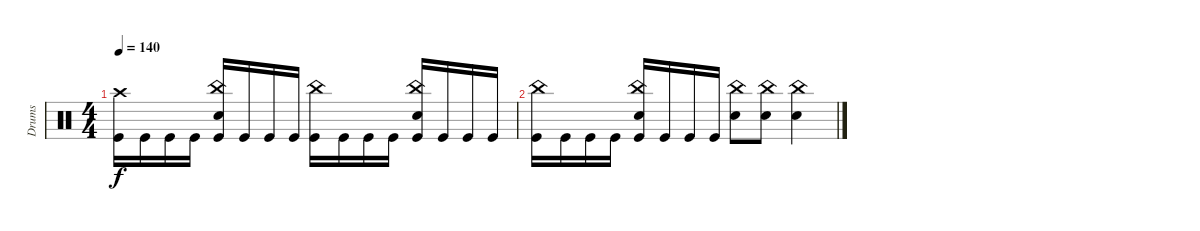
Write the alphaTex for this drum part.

\track ("Drums" "Drums") {instrument percussion}
\staff {score}
\articulation defaults
\ts (4 4)
\tempo 140
\clef neutral
\ks c
("Crash high (hit)" "Kick (hit)").16{dy f} "Kick (hit)".16 "Kick (hit)".16 "Kick (hit)".16 ("China (hit)" "Electric Snare (hit)" "Kick (hit)").16 "Kick (hit)".16 "Kick (hit)".16 "Kick (hit)".16 ("China (hit)" "Kick (hit)").16 "Kick (hit)".16 "Kick (hit)".16 "Kick (hit)".16 ("China (hit)" "Electric Snare (hit)" "Kick (hit)").16 "Kick (hit)".16 "Kick (hit)".16 "Kick (hit)".16 |
("China (hit)" "Kick (hit)").16 "Kick (hit)".16 "Kick (hit)".16 "Kick (hit)".16 ("China (hit)" "Electric Snare (hit)" "Kick (hit)").16 "Kick (hit)".16 "Kick (hit)".16 "Kick (hit)".16 ("China (hit)" "Electric Snare (hit)").8 ("China (hit)" "Electric Snare (hit)").8 ("China (hit)" "Electric Snare (hit)").4
